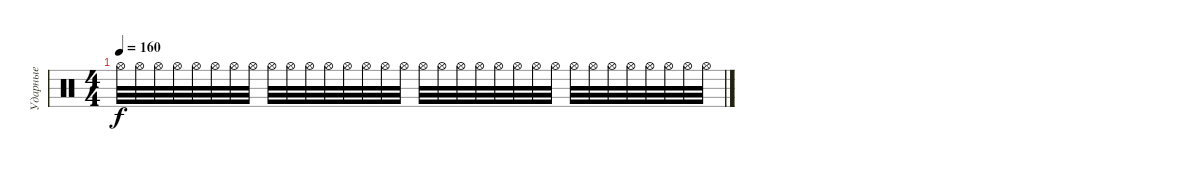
\track ("Ударные" "Ударные") {instrument percussion}
\staff
\articulation defaults
\ts (4 4)
\tempo 160
\clef neutral
\ks c "Hi-Hat (open)".32{dy f} "Hi-Hat (open)".32 "Hi-Hat (open)".32 "Hi-Hat (open)".32 "Hi-Hat (open)".32 "Hi-Hat (open)".32 "Hi-Hat (open)".32 "Hi-Hat (open)".32 "Hi-Hat (open)".32 "Hi-Hat (open)".32 "Hi-Hat (open)".32 "Hi-Hat (open)".32 "Hi-Hat (open)".32 "Hi-Hat (open)".32 "Hi-Hat (open)".32 "Hi-Hat (open)".32 "Hi-Hat (open)".32 "Hi-Hat (open)".32 "Hi-Hat (open)".32 "Hi-Hat (open)".32 "Hi-Hat (open)".32 "Hi-Hat (open)".32 "Hi-Hat (open)".32 "Hi-Hat (open)".32 "Hi-Hat (open)".32 "Hi-Hat (open)".32 "Hi-Hat (open)".32 "Hi-Hat (open)".32 "Hi-Hat (open)".32 "Hi-Hat (open)".32 "Hi-Hat (open)".32 "Hi-Hat (open)".32
